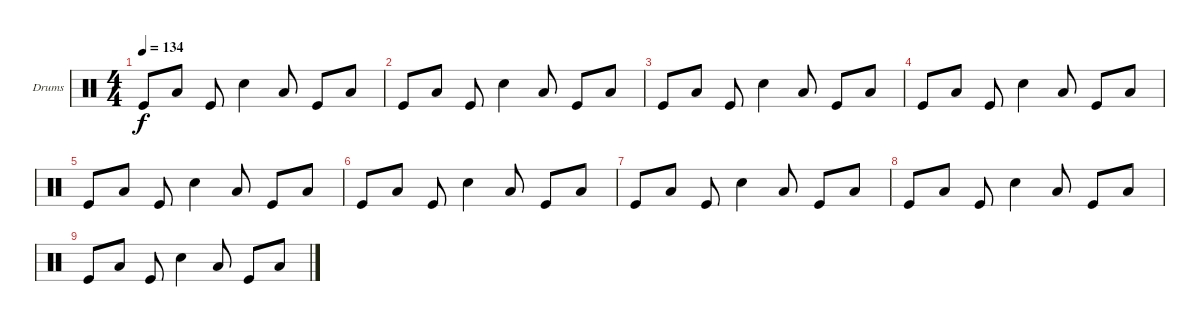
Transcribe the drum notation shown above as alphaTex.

\defaultSystemsLayout 4
\bracketExtendMode groupsimilarinstruments
\firstSystemTrackNameOrientation horizontal
\otherSystemsTrackNameOrientation horizontal
\track ("Drumkit" "Drums") {instrument percussion}
\staff {score}
\articulation defaults
\ts (4 4)
\tempo 134
\clef neutral
\ks c "Kick (hit)".8{dy f} "Low Tom (hit)".8 "Kick (hit)".8 "Snare (hit) 2".4 "Low Tom (hit)".8 "Kick (hit)".8 "Low Tom (hit)".8
|
"Kick (hit)".8 "Low Tom (hit)".8 "Kick (hit)".8 "Snare (hit) 2".4 "Low Tom (hit)".8 "Kick (hit)".8 "Low Tom (hit)".8 |
"Kick (hit)".8 "Low Tom (hit)".8 "Kick (hit)".8 "Snare (hit) 2".4 "Low Tom (hit)".8 "Kick (hit)".8 "Low Tom (hit)".8 |
"Kick (hit)".8 "Low Tom (hit)".8 "Kick (hit)".8 "Snare (hit) 2".4 "Low Tom (hit)".8 "Kick (hit)".8 "Low Tom (hit)".8 |
"Kick (hit)".8 "Low Tom (hit)".8 "Kick (hit)".8 "Snare (hit) 2".4 "Low Tom (hit)".8 "Kick (hit)".8 "Low Tom (hit)".8 |
"Kick (hit)".8 "Low Tom (hit)".8 "Kick (hit)".8 "Snare (hit) 2".4 "Low Tom (hit)".8 "Kick (hit)".8 "Low Tom (hit)".8 |
"Kick (hit)".8 "Low Tom (hit)".8 "Kick (hit)".8 "Snare (hit) 2".4 "Low Tom (hit)".8 "Kick (hit)".8 "Low Tom (hit)".8 |
"Kick (hit)".8 "Low Tom (hit)".8 "Kick (hit)".8 "Snare (hit) 2".4 "Low Tom (hit)".8 "Kick (hit)".8 "Low Tom (hit)".8 |
"Kick (hit)".8 "Low Tom (hit)".8 "Kick (hit)".8 "Snare (hit) 2".4 "Low Tom (hit)".8 "Kick (hit)".8 "Low Tom (hit)".8
